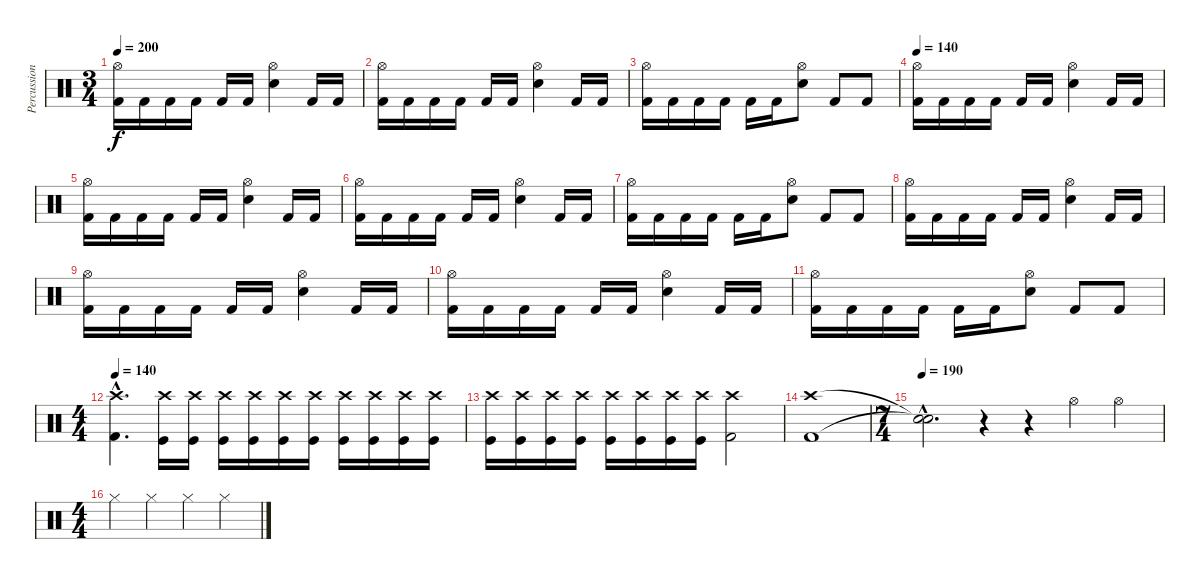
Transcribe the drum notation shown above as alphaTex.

\track ("Percussion" "Percussion") {instrument percussion}
\staff {score}
\articulation defaults
\ts (3 4)
\tempo 200
\clef neutral
\ks c
("Hi-Hat (open)" "Kick (hit) 2").16{dy f} "Kick (hit) 2".16 "Kick (hit) 2".16 "Kick (hit) 2".16 "Kick (hit) 2".16 "Kick (hit) 2".16 ("Hi-Hat (open)" "Electric Snare (hit)").4 "Kick (hit) 2".16 "Kick (hit) 2".16 |
("Hi-Hat (open)" "Kick (hit) 2").16 "Kick (hit) 2".16 "Kick (hit) 2".16 "Kick (hit) 2".16 "Kick (hit) 2".16 "Kick (hit) 2".16 ("Hi-Hat (open)" "Electric Snare (hit)").4 "Kick (hit) 2".16 "Kick (hit) 2".16 |
("Hi-Hat (open)" "Kick (hit) 2").16 "Kick (hit) 2".16 "Kick (hit) 2".16 "Kick (hit) 2".16 "Kick (hit) 2".16 "Kick (hit) 2".16 ("Hi-Hat (open)" "Electric Snare (hit)").8 "Kick (hit) 2".8 "Kick (hit) 2".8 |
\tempo 140
("Hi-Hat (open)" "Kick (hit) 2").16 "Kick (hit) 2".16 "Kick (hit) 2".16 "Kick (hit) 2".16 "Kick (hit) 2".16 "Kick (hit) 2".16 ("Hi-Hat (open)" "Electric Snare (hit)").4 "Kick (hit) 2".16 "Kick (hit) 2".16 |
("Hi-Hat (open)" "Kick (hit) 2").16 "Kick (hit) 2".16 "Kick (hit) 2".16 "Kick (hit) 2".16 "Kick (hit) 2".16 "Kick (hit) 2".16 ("Hi-Hat (open)" "Electric Snare (hit)").4 "Kick (hit) 2".16 "Kick (hit) 2".16 |
("Hi-Hat (open)" "Kick (hit) 2").16 "Kick (hit) 2".16 "Kick (hit) 2".16 "Kick (hit) 2".16 "Kick (hit) 2".16 "Kick (hit) 2".16 ("Hi-Hat (open)" "Electric Snare (hit)").4 "Kick (hit) 2".16 "Kick (hit) 2".16 |
("Hi-Hat (open)" "Kick (hit) 2").16 "Kick (hit) 2".16 "Kick (hit) 2".16 "Kick (hit) 2".16 "Kick (hit) 2".16 "Kick (hit) 2".16 ("Hi-Hat (open)" "Electric Snare (hit)").8 "Kick (hit) 2".8 "Kick (hit) 2".8 |
("Hi-Hat (open)" "Kick (hit) 2").16 "Kick (hit) 2".16 "Kick (hit) 2".16 "Kick (hit) 2".16 "Kick (hit) 2".16 "Kick (hit) 2".16 ("Hi-Hat (open)" "Electric Snare (hit)").4 "Kick (hit) 2".16 "Kick (hit) 2".16 |
("Hi-Hat (open)" "Kick (hit) 2").16 "Kick (hit) 2".16 "Kick (hit) 2".16 "Kick (hit) 2".16 "Kick (hit) 2".16 "Kick (hit) 2".16 ("Hi-Hat (open)" "Electric Snare (hit)").4 "Kick (hit) 2".16 "Kick (hit) 2".16 |
("Hi-Hat (open)" "Kick (hit) 2").16 "Kick (hit) 2".16 "Kick (hit) 2".16 "Kick (hit) 2".16 "Kick (hit) 2".16 "Kick (hit) 2".16 ("Hi-Hat (open)" "Electric Snare (hit)").4 "Kick (hit) 2".16 "Kick (hit) 2".16 |
("Hi-Hat (open)" "Kick (hit) 2").16 "Kick (hit) 2".16 "Kick (hit) 2".16 "Kick (hit) 2".16 "Kick (hit) 2".16 "Kick (hit) 2".16 ("Hi-Hat (open)" "Electric Snare (hit)").8 "Kick (hit) 2".8 "Kick (hit) 2".8 |
\ts (4 4)
\tempo 140
("Crash high (hit)"{hac} "Kick (hit) 2"{hac}).4{d} ("Crash high (hit)" "Kick (hit)").16 ("Crash high (hit)" "Kick (hit)").16 ("Crash high (hit)" "Kick (hit)").16 ("Crash high (hit)" "Kick (hit)").16 ("Crash high (hit)" "Kick (hit)").16 ("Crash high (hit)" "Kick (hit)").16 ("Crash high (hit)" "Kick (hit)").16 ("Crash high (hit)" "Kick (hit)").16 ("Crash high (hit)" "Kick (hit)").16 ("Crash high (hit)" "Kick (hit)").16 |
("Crash high (hit)" "Kick (hit)").16 ("Crash high (hit)" "Kick (hit)").16 ("Crash high (hit)" "Kick (hit)").16 ("Crash high (hit)" "Kick (hit)").16 ("Crash high (hit)" "Kick (hit)").16 ("Crash high (hit)" "Kick (hit)").16 ("Crash high (hit)" "Kick (hit)").16 ("Crash high (hit)" "Kick (hit)").16 ("Crash high (hit)" "Kick (hit) 2").2 |
("Crash high (hit)" "Kick (hit) 2").1 |
\ts (7 4)
\tempo 190
("Snare (hit)"{hac t} "Snare (hit)"{hac t}).2{d} r.4 r.4 "Hi-Hat (open)".4 "Hi-Hat (open)".4 |
\ts (4 4)
"Hi-Hat (closed)".4 "Hi-Hat (closed)".4 "Hi-Hat (closed)".4 "Hi-Hat (closed)".4
